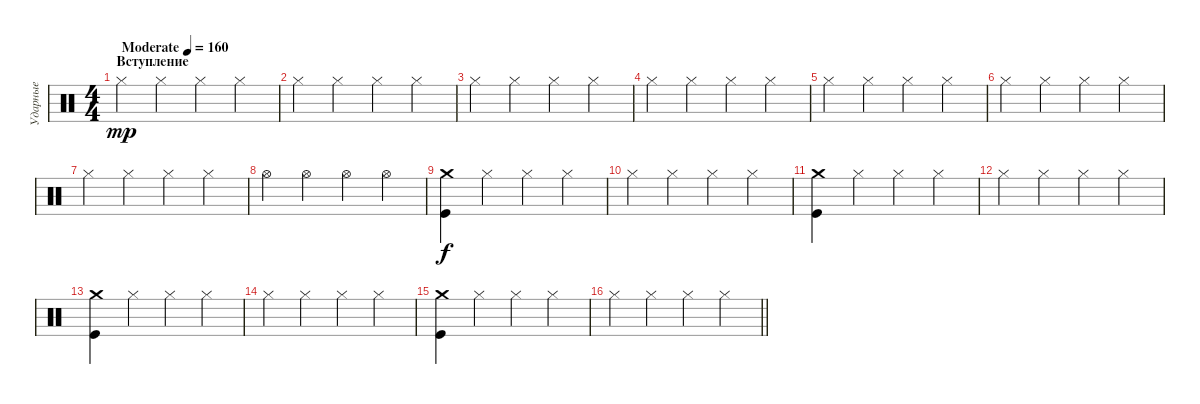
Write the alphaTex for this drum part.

\track ("Ударные" "Ударные") {instrument percussion}
\staff {score}
\articulation defaults
\ts (4 4)
\section ("" "Вступление")
\tempo (160 "Moderate")
\clef neutral
\ks c "Hi-Hat (closed)".4{dy mp} "Hi-Hat (closed)".4 "Hi-Hat (closed)".4 "Hi-Hat (closed)".4
|
"Hi-Hat (closed)".4 "Hi-Hat (closed)".4 "Hi-Hat (closed)".4 "Hi-Hat (closed)".4 |
"Hi-Hat (closed)".4 "Hi-Hat (closed)".4 "Hi-Hat (closed)".4 "Hi-Hat (closed)".4 |
"Hi-Hat (closed)".4 "Hi-Hat (closed)".4 "Hi-Hat (closed)".4 "Hi-Hat (closed)".4 |
"Hi-Hat (closed)".4 "Hi-Hat (closed)".4 "Hi-Hat (closed)".4 "Hi-Hat (closed)".4 |
"Hi-Hat (closed)".4 "Hi-Hat (closed)".4 "Hi-Hat (closed)".4 "Hi-Hat (closed)".4 |
"Hi-Hat (closed)".4 "Hi-Hat (closed)".4 "Hi-Hat (closed)".4 "Hi-Hat (closed)".4 |
"Hi-Hat (open)".4 "Hi-Hat (open)".4 "Hi-Hat (open)".4 "Hi-Hat (open)".4 |
("Crash medium (hit)" "Kick (hit)").4{dy f} "Hi-Hat (closed)".4 "Hi-Hat (closed)".4 "Hi-Hat (closed)".4 |
"Hi-Hat (closed)".4 "Hi-Hat (closed)".4 "Hi-Hat (closed)".4 "Hi-Hat (closed)".4 |
("Crash medium (hit)" "Kick (hit)").4 "Hi-Hat (closed)".4 "Hi-Hat (closed)".4 "Hi-Hat (closed)".4 |
"Hi-Hat (closed)".4 "Hi-Hat (closed)".4 "Hi-Hat (closed)".4 "Hi-Hat (closed)".4 |
("Crash medium (hit)" "Kick (hit)").4 "Hi-Hat (closed)".4 "Hi-Hat (closed)".4 "Hi-Hat (closed)".4 |
"Hi-Hat (closed)".4 "Hi-Hat (closed)".4 "Hi-Hat (closed)".4 "Hi-Hat (closed)".4 |
("Crash medium (hit)" "Kick (hit)").4 "Hi-Hat (closed)".4 "Hi-Hat (closed)".4 "Hi-Hat (closed)".4 |
\barLineRight lightlight "Hi-Hat (closed)".4 "Hi-Hat (closed)".4 "Hi-Hat (closed)".4 "Hi-Hat (closed)".4
